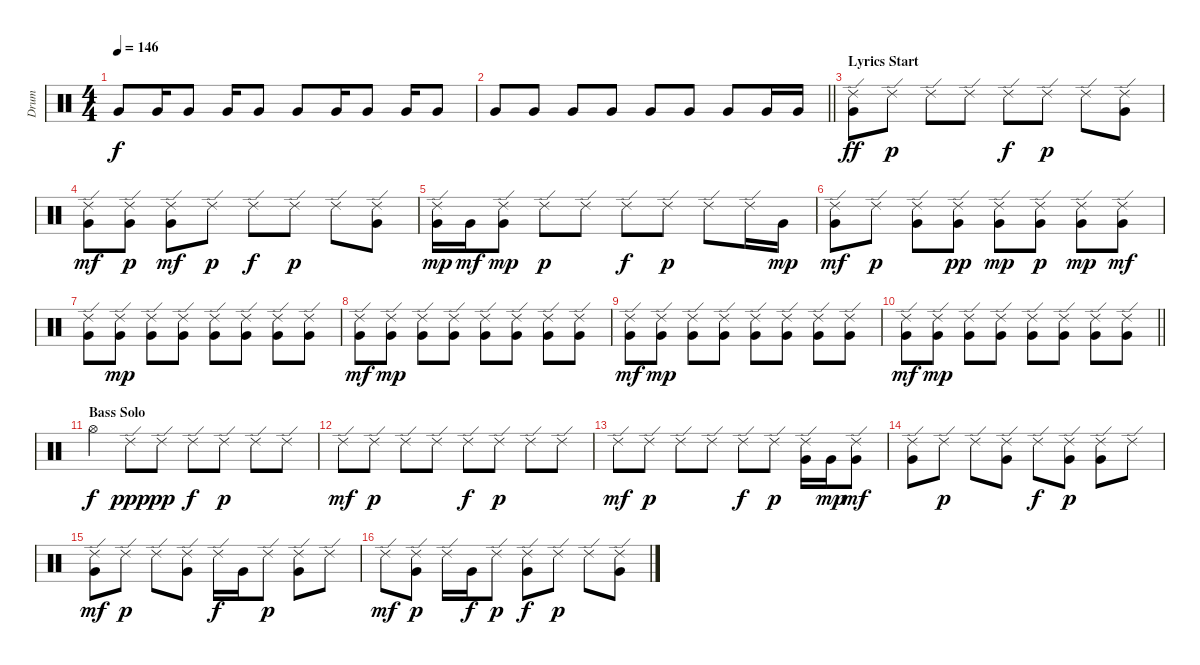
\track ("Drum" "Drum") {instrument percussion}
\staff {score}
\articulation defaults
\ts (4 4)
\tempo 146
\clef neutral
\ks c "Very Low Tom (hit)".8{dy f} "Very Low Tom (hit)".16 "Very Low Tom (hit)".8 "Very Low Tom (hit)".16 "Very Low Tom (hit)".8 "Very Low Tom (hit)".8 "Very Low Tom (hit)".16 "Very Low Tom (hit)".8 "Very Low Tom (hit)".16 "Very Low Tom (hit)".8
|
\barLineRight lightlight "Very Low Tom (hit)".8 "Very Low Tom (hit)".8 "Very Low Tom (hit)".8 "Very Low Tom (hit)".8 "Very Low Tom (hit)".8 "Very Low Tom (hit)".8 "Very Low Tom (hit)".8 "Very Low Tom (hit)".16 "Very Low Tom (hit)".16
|
\section ("" "Lyrics Start")
("Ride (edge) 2" "Very Low Tom (hit)").8{dy ff} "Ride (edge) 2".8{dy p} "Ride (edge) 2".8 "Ride (edge) 2".8 "Ride (edge) 2".8{dy f} "Ride (edge) 2".8{dy p} "Ride (edge) 2".8 ("Ride (edge) 2" "Very Low Tom (hit)").8 |
("Ride (edge) 2" "Very Low Tom (hit)").8{dy mf} ("Ride (edge) 2" "Very Low Tom (hit)").8{dy p} ("Ride (edge) 2" "Very Low Tom (hit)").8{dy mf} "Ride (edge) 2".8{dy p} "Ride (edge) 2".8{dy f} "Ride (edge) 2".8{dy p} "Ride (edge) 2".8 ("Ride (edge) 2" "Very Low Tom (hit)").8 |
("Ride (edge) 2" "Very Low Tom (hit)").16{dy mp} "Very Low Tom (hit)".16{dy mf} ("Ride (edge) 2" "Very Low Tom (hit)").8{dy mp} "Ride (edge) 2".8{dy p} "Ride (edge) 2".8 "Ride (edge) 2".8{dy f} "Ride (edge) 2".8{dy p} "Ride (edge) 2".8 "Ride (edge) 2".16 "Very Low Tom (hit)".16{dy mp} |
("Ride (edge) 2" "Very Low Tom (hit)").8{dy mf} "Ride (edge) 2".8{dy p} ("Ride (edge) 2" "Very Low Tom (hit)").8 ("Ride (edge) 2" "Very Low Tom (hit)").8{dy pp} ("Ride (edge) 2" "Very Low Tom (hit)").8{dy mp} ("Ride (edge) 2" "Very Low Tom (hit)").8{dy p} ("Ride (edge) 2" "Very Low Tom (hit)").8{dy mp} ("Ride (edge) 2" "Very Low Tom (hit)").8{dy mf} |
("Ride (edge) 2" "Very Low Tom (hit)").8 ("Ride (edge) 2" "Very Low Tom (hit)").8{dy mp} ("Ride (edge) 2" "Very Low Tom (hit)").8 ("Ride (edge) 2" "Very Low Tom (hit)").8 ("Ride (edge) 2" "Very Low Tom (hit)").8 ("Ride (edge) 2" "Very Low Tom (hit)").8 ("Ride (edge) 2" "Very Low Tom (hit)").8 ("Ride (edge) 2" "Very Low Tom (hit)").8 |
("Ride (edge) 2" "Very Low Tom (hit)").8{dy mf} ("Ride (edge) 2" "Very Low Tom (hit)").8{dy mp} ("Ride (edge) 2" "Very Low Tom (hit)").8 ("Ride (edge) 2" "Very Low Tom (hit)").8 ("Ride (edge) 2" "Very Low Tom (hit)").8 ("Ride (edge) 2" "Very Low Tom (hit)").8 ("Ride (edge) 2" "Very Low Tom (hit)").8 ("Ride (edge) 2" "Very Low Tom (hit)").8 |
("Ride (edge) 2" "Very Low Tom (hit)").8{dy mf} ("Ride (edge) 2" "Very Low Tom (hit)").8{dy mp} ("Ride (edge) 2" "Very Low Tom (hit)").8 ("Ride (edge) 2" "Very Low Tom (hit)").8 ("Ride (edge) 2" "Very Low Tom (hit)").8 ("Ride (edge) 2" "Very Low Tom (hit)").8 ("Ride (edge) 2" "Very Low Tom (hit)").8 ("Ride (edge) 2" "Very Low Tom (hit)").8 |
\barLineRight lightlight
("Ride (edge) 2" "Very Low Tom (hit)").8{dy mf} ("Ride (edge) 2" "Very Low Tom (hit)").8{dy mp} ("Ride (edge) 2" "Very Low Tom (hit)").8 ("Ride (edge) 2" "Very Low Tom (hit)").8 ("Ride (edge) 2" "Very Low Tom (hit)").8 ("Ride (edge) 2" "Very Low Tom (hit)").8 ("Ride (edge) 2" "Very Low Tom (hit)").8 ("Ride (edge) 2" "Very Low Tom (hit)").8 |
\section ("" "Bass Solo")
"Hi-Hat (open)".4{dy f} "Ride (edge) 2".8{dy ppp} "Ride (edge) 2".8{dy pp} "Ride (edge) 2".8{dy f} "Ride (edge) 2".8{dy p} "Ride (edge) 2".8 "Ride (edge) 2".8 |
"Ride (edge) 2".8{dy mf} "Ride (edge) 2".8{dy p} "Ride (edge) 2".8 "Ride (edge) 2".8 "Ride (edge) 2".8{dy f} "Ride (edge) 2".8{dy p} "Ride (edge) 2".8 "Ride (edge) 2".8 |
"Ride (edge) 2".8{dy mf} "Ride (edge) 2".8{dy p} "Ride (edge) 2".8 "Ride (edge) 2".8 "Ride (edge) 2".8{dy f} "Ride (edge) 2".8{dy p} ("Ride (edge) 2" "Very Low Tom (hit)").16 "Very Low Tom (hit)".16{dy mp} ("Ride (edge) 2" "Very Low Tom (hit)").8{dy mf} |
("Ride (edge) 2" "Very Low Tom (hit)").8 "Ride (edge) 2".8{dy p} "Ride (edge) 2".8 ("Ride (edge) 2" "Very Low Tom (hit)").8 "Ride (edge) 2".8{dy f} ("Ride (edge) 2" "Very Low Tom (hit)").8{dy p} ("Ride (edge) 2" "Very Low Tom (hit)").8 "Ride (edge) 2".8 |
("Ride (edge) 2" "Very Low Tom (hit)").8{dy mf} "Ride (edge) 2".8{dy p} "Ride (edge) 2".8 ("Ride (edge) 2" "Very Low Tom (hit)").8 "Ride (edge) 2".16{dy f} "Very Low Tom (hit)".16 "Ride (edge) 2".8{dy p} ("Ride (edge) 2" "Very Low Tom (hit)").8 "Ride (edge) 2".8 |
"Ride (edge) 2".8{dy mf} ("Ride (edge) 2" "Very Low Tom (hit)").8{dy p} "Ride (edge) 2".16 "Very Low Tom (hit)".16{dy f} "Ride (edge) 2".8{dy p} ("Ride (edge) 2" "Very Low Tom (hit)").8{dy f} "Ride (edge) 2".8{dy p} "Ride (edge) 2".8 ("Ride (edge) 2" "Very Low Tom (hit)").8
